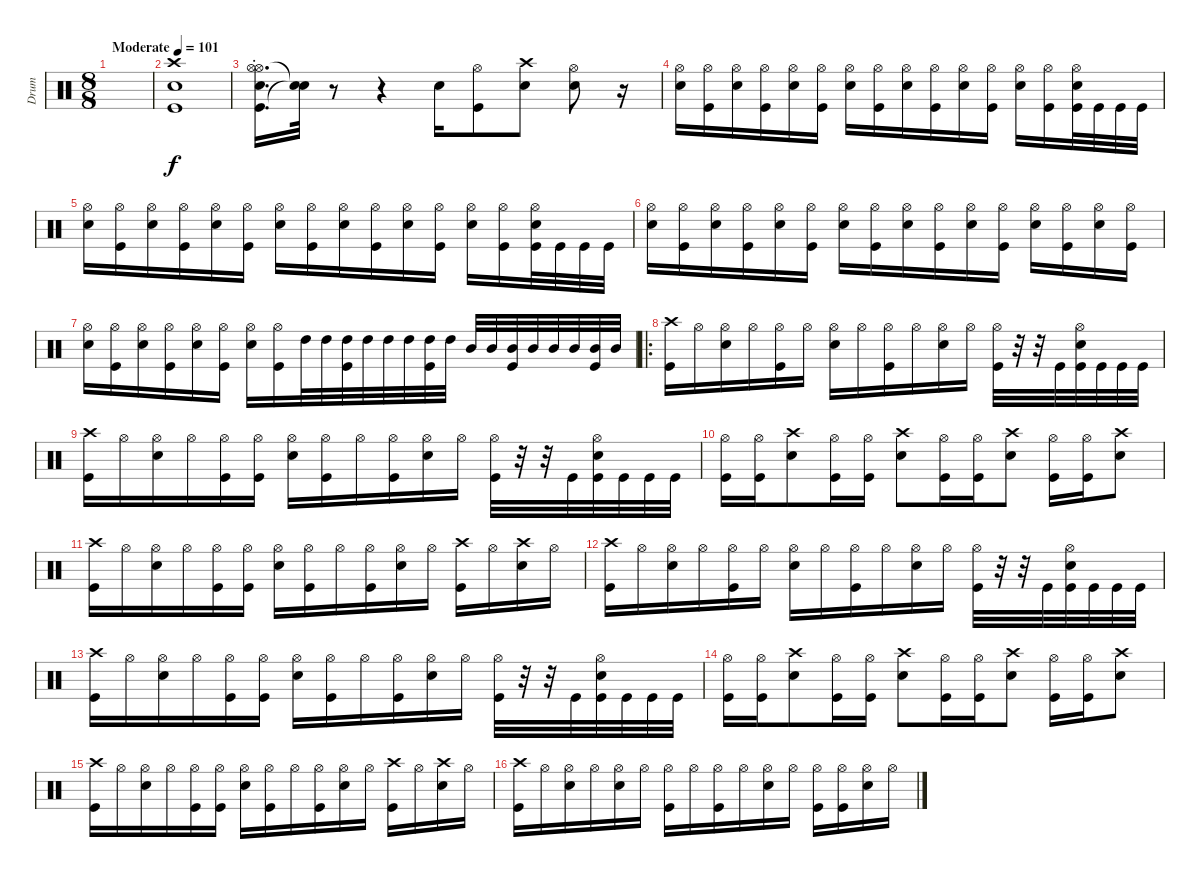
\track ("Drum" "Drum") {instrument percussion}
\staff {score}
\articulation defaults
\ts (8 8)
\tempo (101 "Moderate")
\clef neutral
\ks c
|
("Kick (hit)" "Snare (hit) 2" "Crash high (hit)").1 |
("Hi-Hat (open)"{st} "Kick (hit)"{st} "Snare (hit) 2"{st} "Hi-Hat (open)"{st}).16{d} ("Snare (hit)"{t} "Snare (hit)"{t}).32 r.8 r.4 "Snare (hit) 2".16 ("Kick (hit)" "Hi-Hat (open)").8 ("Snare (hit) 2" "Crash high (hit)").8 ("Snare (hit) 2" "Hi-Hat (open)").8 r.16 |
("Hi-Hat (open)" "Snare (hit) 2").16 ("Hi-Hat (open)" "Kick (hit)").16 ("Hi-Hat (open)" "Snare (hit) 2").16 ("Hi-Hat (open)" "Kick (hit)").16 ("Hi-Hat (open)" "Snare (hit) 2").16 ("Hi-Hat (open)" "Kick (hit)").16 ("Hi-Hat (open)" "Snare (hit) 2").16 ("Hi-Hat (open)" "Kick (hit)").16 ("Hi-Hat (open)" "Snare (hit) 2").16 ("Hi-Hat (open)" "Kick (hit)").16 ("Hi-Hat (open)" "Snare (hit) 2").16 ("Hi-Hat (open)" "Kick (hit)").16 ("Hi-Hat (open)" "Snare (hit) 2").16 ("Hi-Hat (open)" "Kick (hit)").16 ("Hi-Hat (open)" "Snare (hit) 2" "Kick (hit)").32 "Kick (hit)".32 "Kick (hit)".32 "Kick (hit)".32 |
("Hi-Hat (open)" "Snare (hit) 2").16 ("Hi-Hat (open)" "Kick (hit)").16 ("Hi-Hat (open)" "Snare (hit) 2").16 ("Hi-Hat (open)" "Kick (hit)").16 ("Hi-Hat (open)" "Snare (hit) 2").16 ("Hi-Hat (open)" "Kick (hit)").16 ("Hi-Hat (open)" "Snare (hit) 2").16 ("Hi-Hat (open)" "Kick (hit)").16 ("Hi-Hat (open)" "Snare (hit) 2").16 ("Hi-Hat (open)" "Kick (hit)").16 ("Hi-Hat (open)" "Snare (hit) 2").16 ("Hi-Hat (open)" "Kick (hit)").16 ("Hi-Hat (open)" "Snare (hit) 2").16 ("Hi-Hat (open)" "Kick (hit)").16 ("Hi-Hat (open)" "Snare (hit) 2" "Kick (hit)").32 "Kick (hit)".32 "Kick (hit)".32 "Kick (hit)".32 |
("Hi-Hat (open)" "Snare (hit) 2").16 ("Hi-Hat (open)" "Kick (hit)").16 ("Hi-Hat (open)" "Snare (hit) 2").16 ("Hi-Hat (open)" "Kick (hit)").16 ("Hi-Hat (open)" "Snare (hit) 2").16 ("Hi-Hat (open)" "Kick (hit)").16 ("Hi-Hat (open)" "Snare (hit) 2").16 ("Hi-Hat (open)" "Kick (hit)").16 ("Hi-Hat (open)" "Snare (hit) 2").16 ("Hi-Hat (open)" "Kick (hit)").16 ("Hi-Hat (open)" "Snare (hit) 2").16 ("Hi-Hat (open)" "Kick (hit)").16 ("Hi-Hat (open)" "Snare (hit) 2").16 ("Hi-Hat (open)" "Kick (hit)").16 ("Hi-Hat (open)" "Snare (hit) 2").16 ("Hi-Hat (open)" "Kick (hit)").16 |
("Hi-Hat (open)" "Snare (hit) 2").16 ("Hi-Hat (open)" "Kick (hit)").16 ("Hi-Hat (open)" "Snare (hit) 2").16 ("Hi-Hat (open)" "Kick (hit)").16 ("Hi-Hat (open)" "Snare (hit) 2").16 ("Hi-Hat (open)" "Kick (hit)").16 ("Hi-Hat (open)" "Snare (hit) 2").16 ("Hi-Hat (open)" "Kick (hit)").16 "High Tom (hit)".32 "High Tom (hit)".32 ("High Tom (hit)" "Kick (hit)").32 "High Tom (hit)".32 "High Tom (hit)".32 "High Tom (hit)".32 ("High Tom (hit)" "Kick (hit)").32 "High Tom (hit)".32 "Mid Tom (hit)".32 "Mid Tom (hit)".32 ("Mid Tom (hit)" "Kick (hit)").32 "Mid Tom (hit)".32 "Mid Tom (hit)".32 "Mid Tom (hit)".32 ("Mid Tom (hit)" "Kick (hit)").32 "Mid Tom (hit)".32 |
\ro
("Crash high (hit)" "Kick (hit)").16 "Hi-Hat (open)".16 ("Hi-Hat (open)" "Snare (hit) 2").16 "Hi-Hat (open)".16 ("Hi-Hat (open)" "Kick (hit)").16 "Hi-Hat (open)".16 ("Hi-Hat (open)" "Snare (hit) 2").16 "Hi-Hat (open)".16 ("Hi-Hat (open)" "Kick (hit)").16 "Hi-Hat (open)".16 ("Hi-Hat (open)" "Snare (hit) 2").16 "Hi-Hat (open)".16 ("Hi-Hat (open)" "Kick (hit)").32 r.32 r.32 "Kick (hit)".32 ("Hi-Hat (open)" "Snare (hit) 2" "Kick (hit)").32 "Kick (hit)".32 "Kick (hit)".32 "Kick (hit)".32 |
("Crash high (hit)" "Kick (hit)").16 "Hi-Hat (open)".16 ("Hi-Hat (open)" "Snare (hit) 2").16 "Hi-Hat (open)".16 ("Hi-Hat (open)" "Kick (hit)").16 ("Hi-Hat (open)" "Kick (hit)").16 ("Hi-Hat (open)" "Snare (hit) 2").16 ("Hi-Hat (open)" "Kick (hit)").16 "Hi-Hat (open)".16 ("Hi-Hat (open)" "Kick (hit)").16 ("Hi-Hat (open)" "Snare (hit) 2").16 "Hi-Hat (open)".16 ("Hi-Hat (open)" "Kick (hit)").32 r.32 r.32 "Kick (hit)".32 ("Hi-Hat (open)" "Snare (hit) 2" "Kick (hit)").32 "Kick (hit)".32 "Kick (hit)".32 "Kick (hit)".32 |
("Hi-Hat (open)" "Kick (hit)").16 ("Hi-Hat (open)" "Kick (hit)").16 ("Crash high (hit)" "Snare (hit) 2").8 ("Hi-Hat (open)" "Kick (hit)").16 ("Hi-Hat (open)" "Kick (hit)").16 ("Crash high (hit)" "Snare (hit) 2").8 ("Hi-Hat (open)" "Kick (hit)").16 ("Hi-Hat (open)" "Kick (hit)").16 ("Crash high (hit)" "Snare (hit) 2").8 ("Hi-Hat (open)" "Kick (hit)").16 ("Hi-Hat (open)" "Kick (hit)").16 ("Crash high (hit)" "Snare (hit) 2").8 |
("Crash high (hit)" "Kick (hit)").16 "Hi-Hat (open)".16 ("Hi-Hat (open)" "Snare (hit) 2").16 "Hi-Hat (open)".16 ("Hi-Hat (open)" "Kick (hit)").16 ("Hi-Hat (open)" "Kick (hit)").16 ("Hi-Hat (open)" "Snare (hit) 2").16 ("Hi-Hat (open)" "Kick (hit)").16 "Hi-Hat (open)".16 ("Hi-Hat (open)" "Kick (hit)").16 ("Hi-Hat (open)" "Snare (hit) 2").16 "Hi-Hat (open)".16 ("Crash high (hit)" "Kick (hit)").16 "Hi-Hat (open)".16 ("Crash high (hit)" "Snare (hit) 2").16 "Hi-Hat (open)".16 |
("Crash high (hit)" "Kick (hit)").16 "Hi-Hat (open)".16 ("Hi-Hat (open)" "Snare (hit) 2").16 "Hi-Hat (open)".16 ("Hi-Hat (open)" "Kick (hit)").16 "Hi-Hat (open)".16 ("Hi-Hat (open)" "Snare (hit) 2").16 "Hi-Hat (open)".16 ("Hi-Hat (open)" "Kick (hit)").16 "Hi-Hat (open)".16 ("Hi-Hat (open)" "Snare (hit) 2").16 "Hi-Hat (open)".16 ("Hi-Hat (open)" "Kick (hit)").32 r.32 r.32 "Kick (hit)".32 ("Hi-Hat (open)" "Snare (hit) 2" "Kick (hit)").32 "Kick (hit)".32 "Kick (hit)".32 "Kick (hit)".32 |
("Crash high (hit)" "Kick (hit)").16 "Hi-Hat (open)".16 ("Hi-Hat (open)" "Snare (hit) 2").16 "Hi-Hat (open)".16 ("Hi-Hat (open)" "Kick (hit)").16 ("Hi-Hat (open)" "Kick (hit)").16 ("Hi-Hat (open)" "Snare (hit) 2").16 ("Hi-Hat (open)" "Kick (hit)").16 "Hi-Hat (open)".16 ("Hi-Hat (open)" "Kick (hit)").16 ("Hi-Hat (open)" "Snare (hit) 2").16 "Hi-Hat (open)".16 ("Hi-Hat (open)" "Kick (hit)").32 r.32 r.32 "Kick (hit)".32 ("Hi-Hat (open)" "Snare (hit) 2" "Kick (hit)").32 "Kick (hit)".32 "Kick (hit)".32 "Kick (hit)".32 |
("Hi-Hat (open)" "Kick (hit)").16 ("Hi-Hat (open)" "Kick (hit)").16 ("Crash high (hit)" "Snare (hit) 2").8 ("Hi-Hat (open)" "Kick (hit)").16 ("Hi-Hat (open)" "Kick (hit)").16 ("Crash high (hit)" "Snare (hit) 2").8 ("Hi-Hat (open)" "Kick (hit)").16 ("Hi-Hat (open)" "Kick (hit)").16 ("Crash high (hit)" "Snare (hit) 2").8 ("Hi-Hat (open)" "Kick (hit)").16 ("Hi-Hat (open)" "Kick (hit)").16 ("Crash high (hit)" "Snare (hit) 2").8 |
("Crash high (hit)" "Kick (hit)").16 "Hi-Hat (open)".16 ("Hi-Hat (open)" "Snare (hit) 2").16 "Hi-Hat (open)".16 ("Hi-Hat (open)" "Kick (hit)").16 ("Hi-Hat (open)" "Kick (hit)").16 ("Hi-Hat (open)" "Snare (hit) 2").16 ("Hi-Hat (open)" "Kick (hit)").16 "Hi-Hat (open)".16 ("Hi-Hat (open)" "Kick (hit)").16 ("Hi-Hat (open)" "Snare (hit) 2").16 "Hi-Hat (open)".16 ("Crash high (hit)" "Kick (hit)").16 "Hi-Hat (open)".16 ("Crash high (hit)" "Snare (hit) 2").16 "Hi-Hat (open)".16 |
("Crash high (hit)" "Kick (hit)").16 "Hi-Hat (open)".16 ("Hi-Hat (open)" "Snare (hit) 2").16 "Hi-Hat (open)".16 ("Hi-Hat (open)" "Snare (hit) 2").16 "Hi-Hat (open)".16 ("Hi-Hat (open)" "Kick (hit)").16 "Hi-Hat (open)".16 ("Hi-Hat (open)" "Kick (hit)").16 "Hi-Hat (open)".16 ("Hi-Hat (open)" "Snare (hit) 2").16 "Hi-Hat (open)".16 ("Hi-Hat (open)" "Kick (hit)").16 ("Hi-Hat (open)" "Kick (hit)").16 ("Hi-Hat (open)" "Snare (hit) 2").16 "Hi-Hat (open)".16
